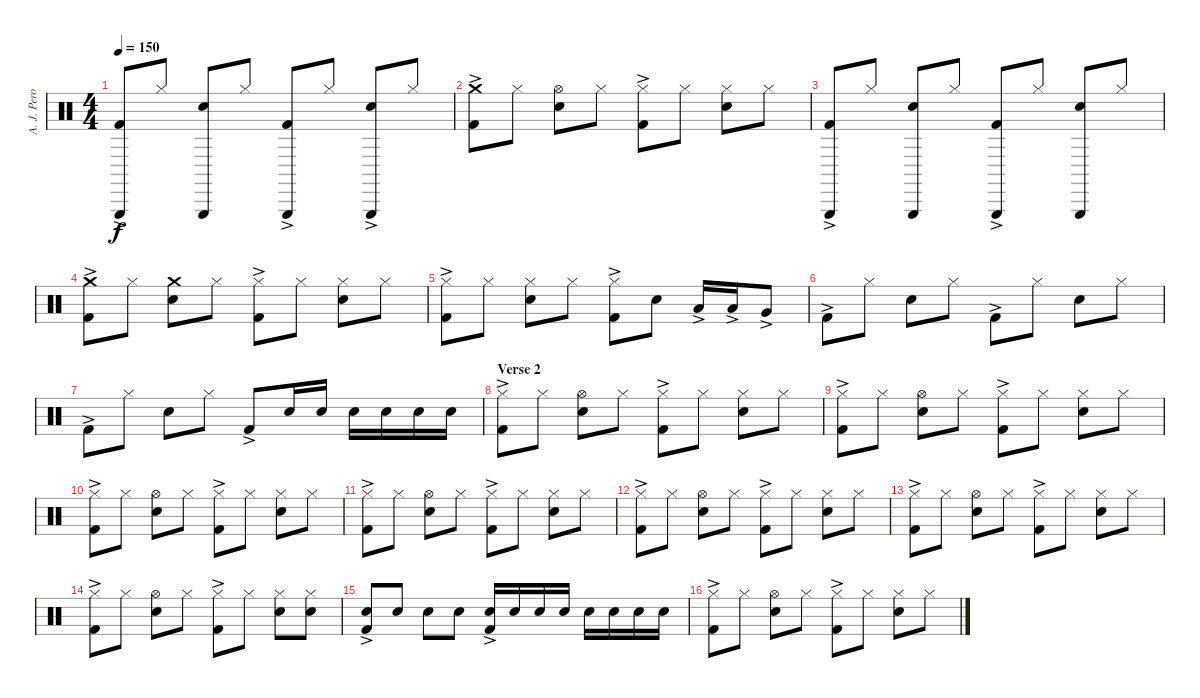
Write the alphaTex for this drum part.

\track ("A. J. Pero - Drums" "A. J. Pero") {instrument percussion}
\staff {score}
\articulation defaults
\ts (4 4)
\tempo 150
\clef neutral
\ks c
("Triangle (hit)" "Kick (hit) 2"{ac}).8{dy f} "Hi-Hat (closed)".8 ("Triangle (hit)" "Electric Snare (hit)").8 "Hi-Hat (closed)".8 ("Triangle (hit)" "Kick (hit) 2"{ac}).8 "Hi-Hat (closed)".8 ("Triangle (hit)" "Electric Snare (hit)"{ac}).8 "Hi-Hat (closed)".8 |
("Crash medium (hit)" "Kick (hit) 2"{ac}).8 "Hi-Hat (closed)".8 ("Hi-Hat (open)" "Electric Snare (hit)").8 "Hi-Hat (closed)".8 ("Hi-Hat (closed)" "Kick (hit) 2"{ac}).8 "Hi-Hat (closed)".8 ("Hi-Hat (closed)" "Electric Snare (hit)").8 "Hi-Hat (closed)".8 |
("Triangle (hit)" "Kick (hit) 2"{ac}).8 "Hi-Hat (closed)".8 ("Triangle (hit)" "Electric Snare (hit)").8 "Hi-Hat (closed)".8 ("Triangle (hit)" "Kick (hit) 2"{ac}).8 "Hi-Hat (closed)".8 ("Triangle (hit)" "Electric Snare (hit)").8 "Hi-Hat (closed)".8 |
("Crash medium (hit)" "Kick (hit) 2"{ac}).8 "Hi-Hat (closed)".8 ("Crash medium (hit)" "Electric Snare (hit)").8 "Hi-Hat (closed)".8 ("Hi-Hat (closed)" "Kick (hit) 2"{ac}).8 "Hi-Hat (closed)".8 ("Hi-Hat (closed)" "Electric Snare (hit)").8 "Hi-Hat (closed)".8 |
("Hi-Hat (closed)" "Kick (hit) 2"{ac}).8 "Hi-Hat (closed)".8 ("Hi-Hat (closed)" "Electric Snare (hit)").8 "Hi-Hat (closed)".8 ("Hi-Hat (closed)" "Kick (hit) 2"{ac}).8 "Electric Snare (hit)".8 "Low Floor Tom (hit)"{ac}.16 "Low Floor Tom (hit)"{ac}.16 "Very Low Tom (hit)"{ac}.8 |
"Kick (hit) 2"{ac}.8 "Hi-Hat (closed)".8 "Electric Snare (hit)".8 "Hi-Hat (closed)".8 "Kick (hit) 2"{ac}.8 "Hi-Hat (closed)".8 "Electric Snare (hit)".8 "Hi-Hat (closed)".8 |
"Kick (hit) 2"{ac}.8 "Hi-Hat (closed)".8 "Electric Snare (hit)".8 "Hi-Hat (closed)".8 "Kick (hit) 2"{ac}.8 "Electric Snare (hit)".16 "Electric Snare (hit)".16 "Electric Snare (hit)".16 "Electric Snare (hit)".16 "Electric Snare (hit)".16 "Electric Snare (hit)".16 |
\section ("" "Verse 2")
("Hi-Hat (closed)" "Kick (hit) 2"{ac}).8 "Hi-Hat (closed)".8 ("Hi-Hat (open)" "Electric Snare (hit)").8 "Hi-Hat (closed)".8 ("Hi-Hat (closed)" "Kick (hit) 2"{ac}).8 "Hi-Hat (closed)".8 ("Hi-Hat (closed)" "Electric Snare (hit)").8 "Hi-Hat (closed)".8 |
("Hi-Hat (closed)" "Kick (hit) 2"{ac}).8 "Hi-Hat (closed)".8 ("Hi-Hat (open)" "Electric Snare (hit)").8 "Hi-Hat (closed)".8 ("Hi-Hat (closed)" "Kick (hit) 2"{ac}).8 "Hi-Hat (closed)".8 ("Hi-Hat (closed)" "Electric Snare (hit)").8 "Hi-Hat (closed)".8 |
("Hi-Hat (closed)" "Kick (hit) 2"{ac}).8 "Hi-Hat (closed)".8 ("Hi-Hat (open)" "Electric Snare (hit)").8 "Hi-Hat (closed)".8 ("Hi-Hat (closed)" "Kick (hit) 2"{ac}).8 "Hi-Hat (closed)".8 ("Hi-Hat (closed)" "Electric Snare (hit)").8 "Hi-Hat (closed)".8 |
("Hi-Hat (closed)" "Kick (hit) 2"{ac}).8 "Hi-Hat (closed)".8 ("Hi-Hat (open)" "Electric Snare (hit)").8 "Hi-Hat (closed)".8 ("Hi-Hat (closed)" "Kick (hit) 2"{ac}).8 "Hi-Hat (closed)".8 ("Hi-Hat (closed)" "Electric Snare (hit)").8 "Hi-Hat (closed)".8 |
("Hi-Hat (closed)" "Kick (hit) 2"{ac}).8 "Hi-Hat (closed)".8 ("Hi-Hat (open)" "Electric Snare (hit)").8 "Hi-Hat (closed)".8 ("Hi-Hat (closed)" "Kick (hit) 2"{ac}).8 "Hi-Hat (closed)".8 ("Hi-Hat (closed)" "Electric Snare (hit)").8 "Hi-Hat (closed)".8 |
("Hi-Hat (closed)" "Kick (hit) 2"{ac}).8 "Hi-Hat (closed)".8 ("Hi-Hat (open)" "Electric Snare (hit)").8 "Hi-Hat (closed)".8 ("Hi-Hat (closed)" "Kick (hit) 2"{ac}).8 "Hi-Hat (closed)".8 ("Hi-Hat (closed)" "Electric Snare (hit)").8 "Hi-Hat (closed)".8 |
("Hi-Hat (closed)" "Kick (hit) 2"{ac}).8 "Hi-Hat (closed)".8 ("Hi-Hat (open)" "Electric Snare (hit)").8 "Hi-Hat (closed)".8 ("Hi-Hat (closed)" "Kick (hit) 2"{ac}).8 "Hi-Hat (closed)".8 ("Hi-Hat (closed)" "Electric Snare (hit)").8 ("Hi-Hat (closed)" "Electric Snare (hit)").8 |
("Electric Snare (hit)" "Kick (hit) 2"{ac}).8 "Electric Snare (hit)".8 "Electric Snare (hit)".8 "Electric Snare (hit)".8 ("Electric Snare (hit)" "Kick (hit) 2"{ac}).16 "Electric Snare (hit)".16 "Electric Snare (hit)".16 "Electric Snare (hit)".16 "Electric Snare (hit)".16 "Electric Snare (hit)".16 "Electric Snare (hit)".16 "Electric Snare (hit)".16 |
("Hi-Hat (closed)" "Kick (hit) 2"{ac}).8 "Hi-Hat (closed)".8 ("Hi-Hat (open)" "Electric Snare (hit)").8 "Hi-Hat (closed)".8 ("Hi-Hat (closed)" "Kick (hit) 2"{ac}).8 "Hi-Hat (closed)".8 ("Hi-Hat (closed)" "Electric Snare (hit)").8 "Hi-Hat (closed)".8
